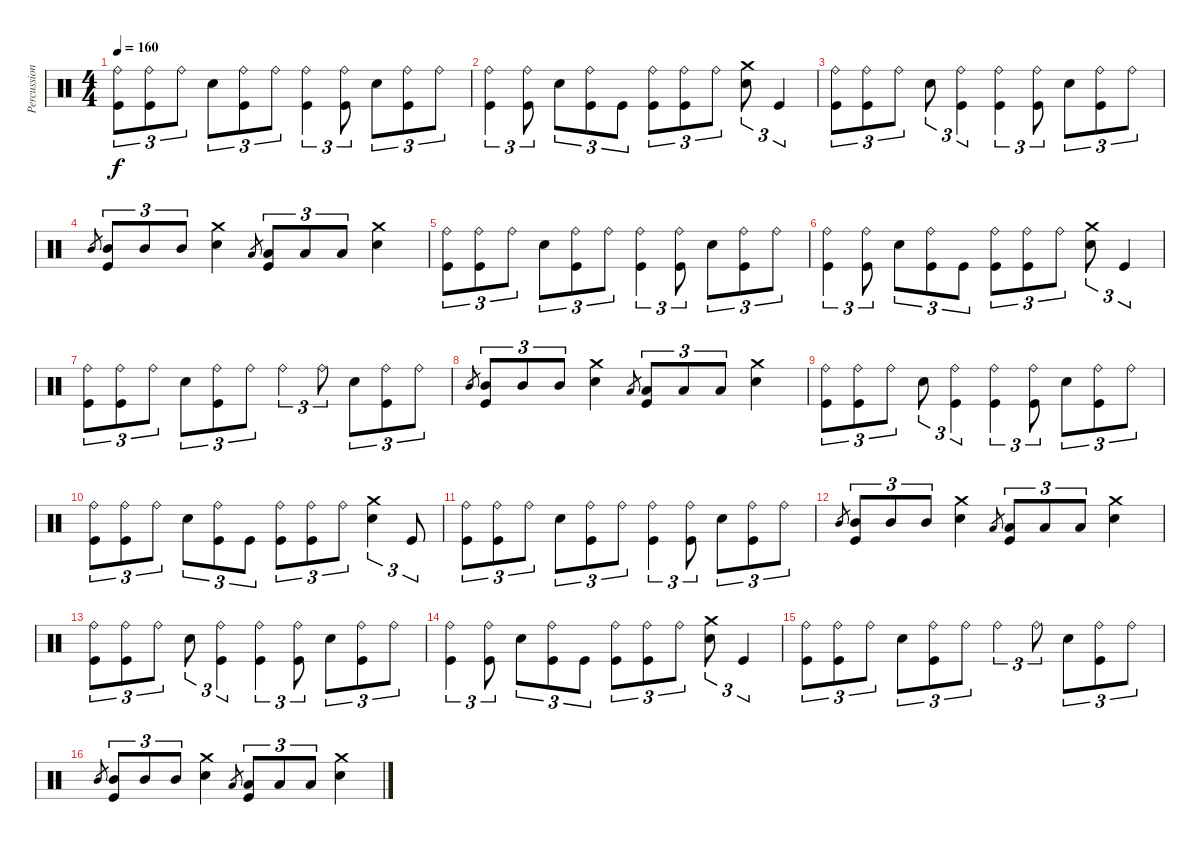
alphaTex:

\track ("Percussions" "Percussion") {instrument percussion}
\staff {score}
\articulation defaults
\ts (4 4)
\tempo 160
\clef neutral
\ks c
("Kick (hit)" "Ride (bell)").8{tu (3 2) dy f} ("Kick (hit)" "Ride (bell)").8{tu (3 2)} "Ride (bell)".8{tu (3 2)} "Electric Snare (hit)".8{tu (3 2)} ("Kick (hit)" "Ride (bell)").8{tu (3 2)} "Ride (bell)".8{tu (3 2)} ("Kick (hit)" "Ride (bell)").4{tu (3 2)} ("Kick (hit)" "Ride (bell)").8{tu (3 2)} "Electric Snare (hit)".8{tu (3 2)} ("Kick (hit)" "Ride (bell)").8{tu (3 2)} "Ride (bell)".8{tu (3 2)} |
("Kick (hit)" "Ride (bell)").4{tu (3 2)} ("Kick (hit)" "Ride (bell)").8{tu (3 2)} "Electric Snare (hit)".8{tu (3 2)} ("Kick (hit)" "Ride (bell)").8{tu (3 2)} "Kick (hit)".8{tu (3 2)} ("Kick (hit)" "Ride (bell)").8{tu (3 2)} ("Kick (hit)" "Ride (bell)").8{tu (3 2)} "Ride (bell)".8{tu (3 2)} ("Electric Snare (hit)" "Crash medium (hit)").8{tu (3 2)} "Kick (hit)".4{tu (3 2)} |
("Kick (hit)" "Ride (bell)").8{tu (3 2)} ("Kick (hit)" "Ride (bell)").8{tu (3 2)} "Ride (bell)".8{tu (3 2)} "Electric Snare (hit)".8{tu (3 2)} ("Kick (hit)" "Ride (bell)").4{tu (3 2)} ("Kick (hit)" "Ride (bell)").4{tu (3 2)} ("Kick (hit)" "Ride (bell)").8{tu (3 2)} "Electric Snare (hit)".8{tu (3 2)} ("Kick (hit)" "Ride (bell)").8{tu (3 2)} "Ride (bell)".8{tu (3 2)} |
"Mid Tom (hit)".8{gr} ("Kick (hit)" "Mid Tom (hit)").8{tu (3 2)} "Mid Tom (hit)".8{tu (3 2)} "Mid Tom (hit)".8{tu (3 2)} ("Electric Snare (hit)" "Crash medium (hit)").4 "Low Tom (hit)".8{gr} ("Kick (hit)" "Low Tom (hit)").8{tu (3 2)} "Low Tom (hit)".8{tu (3 2)} "Low Tom (hit)".8{tu (3 2)} ("Electric Snare (hit)" "Crash medium (hit)").4 |
("Kick (hit)" "Ride (bell)").8{tu (3 2)} ("Kick (hit)" "Ride (bell)").8{tu (3 2)} "Ride (bell)".8{tu (3 2)} "Electric Snare (hit)".8{tu (3 2)} ("Kick (hit)" "Ride (bell)").8{tu (3 2)} "Ride (bell)".8{tu (3 2)} ("Kick (hit)" "Ride (bell)").4{tu (3 2)} ("Kick (hit)" "Ride (bell)").8{tu (3 2)} "Electric Snare (hit)".8{tu (3 2)} ("Kick (hit)" "Ride (bell)").8{tu (3 2)} "Ride (bell)".8{tu (3 2)} |
("Kick (hit)" "Ride (bell)").4{tu (3 2)} ("Kick (hit)" "Ride (bell)").8{tu (3 2)} "Electric Snare (hit)".8{tu (3 2)} ("Kick (hit)" "Ride (bell)").8{tu (3 2)} "Kick (hit)".8{tu (3 2)} ("Kick (hit)" "Ride (bell)").8{tu (3 2)} ("Kick (hit)" "Ride (bell)").8{tu (3 2)} "Ride (bell)".8{tu (3 2)} ("Electric Snare (hit)" "Crash medium (hit)").8{tu (3 2)} "Kick (hit)".4{tu (3 2)} |
("Kick (hit)" "Ride (bell)").8{tu (3 2)} ("Kick (hit)" "Ride (bell)").8{tu (3 2)} "Ride (bell)".8{tu (3 2)} "Electric Snare (hit)".8{tu (3 2)} ("Kick (hit)" "Ride (bell)").8{tu (3 2)} "Ride (bell)".8{tu (3 2)} "Ride (bell)".4{tu (3 2)} "Ride (bell)".8{tu (3 2)} "Electric Snare (hit)".8{tu (3 2)} ("Kick (hit)" "Ride (bell)").8{tu (3 2)} "Ride (bell)".8{tu (3 2)} |
"Mid Tom (hit)".8{gr} ("Kick (hit)" "Mid Tom (hit)").8{tu (3 2)} "Mid Tom (hit)".8{tu (3 2)} "Mid Tom (hit)".8{tu (3 2)} ("Electric Snare (hit)" "Crash medium (hit)").4 "Low Tom (hit)".8{gr} ("Kick (hit)" "Low Tom (hit)").8{tu (3 2)} "Low Tom (hit)".8{tu (3 2)} "Low Tom (hit)".8{tu (3 2)} ("Electric Snare (hit)" "Crash medium (hit)").4 |
("Kick (hit)" "Ride (bell)").8{tu (3 2)} ("Kick (hit)" "Ride (bell)").8{tu (3 2)} "Ride (bell)".8{tu (3 2)} "Electric Snare (hit)".8{tu (3 2)} ("Kick (hit)" "Ride (bell)").4{tu (3 2)} ("Kick (hit)" "Ride (bell)").4{tu (3 2)} ("Kick (hit)" "Ride (bell)").8{tu (3 2)} "Electric Snare (hit)".8{tu (3 2)} ("Kick (hit)" "Ride (bell)").8{tu (3 2)} "Ride (bell)".8{tu (3 2)} |
("Kick (hit)" "Ride (bell)").8{tu (3 2)} ("Kick (hit)" "Ride (bell)").8{tu (3 2)} "Ride (bell)".8{tu (3 2)} "Electric Snare (hit)".8{tu (3 2)} ("Kick (hit)" "Ride (bell)").8{tu (3 2)} "Kick (hit)".8{tu (3 2)} ("Kick (hit)" "Ride (bell)").8{tu (3 2)} ("Kick (hit)" "Ride (bell)").8{tu (3 2)} "Ride (bell)".8{tu (3 2)} ("Electric Snare (hit)" "Crash medium (hit)").4{tu (3 2)} "Kick (hit)".8{tu (3 2)} |
("Kick (hit)" "Ride (bell)").8{tu (3 2)} ("Kick (hit)" "Ride (bell)").8{tu (3 2)} "Ride (bell)".8{tu (3 2)} "Electric Snare (hit)".8{tu (3 2)} ("Kick (hit)" "Ride (bell)").8{tu (3 2)} "Ride (bell)".8{tu (3 2)} ("Kick (hit)" "Ride (bell)").4{tu (3 2)} ("Kick (hit)" "Ride (bell)").8{tu (3 2)} "Electric Snare (hit)".8{tu (3 2)} ("Kick (hit)" "Ride (bell)").8{tu (3 2)} "Ride (bell)".8{tu (3 2)} |
"Mid Tom (hit)".8{gr} ("Kick (hit)" "Mid Tom (hit)").8{tu (3 2)} "Mid Tom (hit)".8{tu (3 2)} "Mid Tom (hit)".8{tu (3 2)} ("Electric Snare (hit)" "Crash medium (hit)").4 "Low Tom (hit)".8{gr} ("Kick (hit)" "Low Tom (hit)").8{tu (3 2)} "Low Tom (hit)".8{tu (3 2)} "Low Tom (hit)".8{tu (3 2)} ("Electric Snare (hit)" "Crash medium (hit)").4 |
("Kick (hit)" "Ride (bell)").8{tu (3 2)} ("Kick (hit)" "Ride (bell)").8{tu (3 2)} "Ride (bell)".8{tu (3 2)} "Electric Snare (hit)".8{tu (3 2)} ("Kick (hit)" "Ride (bell)").4{tu (3 2)} ("Kick (hit)" "Ride (bell)").4{tu (3 2)} ("Kick (hit)" "Ride (bell)").8{tu (3 2)} "Electric Snare (hit)".8{tu (3 2)} ("Kick (hit)" "Ride (bell)").8{tu (3 2)} "Ride (bell)".8{tu (3 2)} |
("Kick (hit)" "Ride (bell)").4{tu (3 2)} ("Kick (hit)" "Ride (bell)").8{tu (3 2)} "Electric Snare (hit)".8{tu (3 2)} ("Kick (hit)" "Ride (bell)").8{tu (3 2)} "Kick (hit)".8{tu (3 2)} ("Kick (hit)" "Ride (bell)").8{tu (3 2)} ("Kick (hit)" "Ride (bell)").8{tu (3 2)} "Ride (bell)".8{tu (3 2)} ("Electric Snare (hit)" "Crash medium (hit)").8{tu (3 2)} "Kick (hit)".4{tu (3 2)} |
("Kick (hit)" "Ride (bell)").8{tu (3 2)} ("Kick (hit)" "Ride (bell)").8{tu (3 2)} "Ride (bell)".8{tu (3 2)} "Electric Snare (hit)".8{tu (3 2)} ("Kick (hit)" "Ride (bell)").8{tu (3 2)} "Ride (bell)".8{tu (3 2)} "Ride (bell)".4{tu (3 2)} "Ride (bell)".8{tu (3 2)} "Electric Snare (hit)".8{tu (3 2)} ("Kick (hit)" "Ride (bell)").8{tu (3 2)} "Ride (bell)".8{tu (3 2)} |
"Mid Tom (hit)".8{gr} ("Kick (hit)" "Mid Tom (hit)").8{tu (3 2)} "Mid Tom (hit)".8{tu (3 2)} "Mid Tom (hit)".8{tu (3 2)} ("Electric Snare (hit)" "Crash medium (hit)").4 "Low Tom (hit)".8{gr} ("Kick (hit)" "Low Tom (hit)").8{tu (3 2)} "Low Tom (hit)".8{tu (3 2)} "Low Tom (hit)".8{tu (3 2)} ("Electric Snare (hit)" "Crash medium (hit)").4
